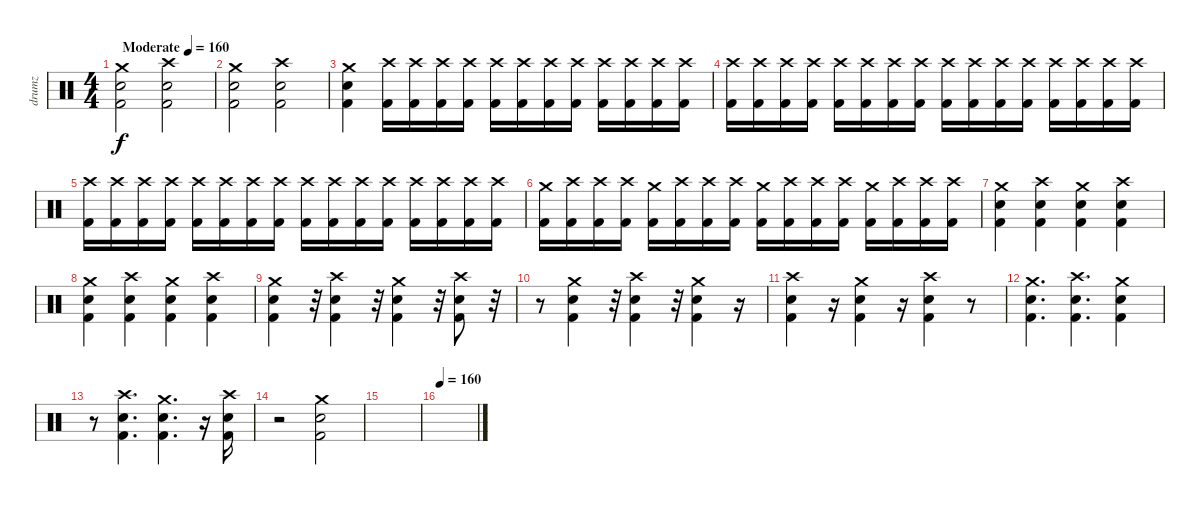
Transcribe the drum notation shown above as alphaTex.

\track ("drumz" "drumz") {instrument percussion}
\staff {score}
\articulation defaults
\ts (4 4)
\tempo (160 "Moderate")
\tempo 130
\tempo (160 "Moderate")
\clef neutral
\ks c
("Crash medium (hit)" "Electric Snare (hit)" "Kick (hit) 2").2{dy f} ("Crash high (hit)" "Electric Snare (hit)" "Kick (hit) 2").2 |
("Crash medium (hit)" "Electric Snare (hit)" "Kick (hit) 2").2 ("Crash high (hit)" "Electric Snare (hit)" "Kick (hit) 2").2 |
("Crash medium (hit)" "Electric Snare (hit)" "Kick (hit) 2").4 ("Crash high (hit)" "Kick (hit) 2").16 ("Crash high (hit)" "Kick (hit) 2").16 ("Crash high (hit)" "Kick (hit) 2").16 ("Crash high (hit)" "Kick (hit) 2").16 ("Crash high (hit)" "Kick (hit) 2").16 ("Crash high (hit)" "Kick (hit) 2").16 ("Crash high (hit)" "Kick (hit) 2").16 ("Crash high (hit)" "Kick (hit) 2").16 ("Crash high (hit)" "Kick (hit) 2").16 ("Crash high (hit)" "Kick (hit) 2").16 ("Crash high (hit)" "Kick (hit) 2").16 ("Crash high (hit)" "Kick (hit) 2").16 |
("Crash high (hit)" "Kick (hit) 2").16 ("Crash high (hit)" "Kick (hit) 2").16 ("Crash high (hit)" "Kick (hit) 2").16 ("Crash high (hit)" "Kick (hit) 2").16 ("Crash high (hit)" "Kick (hit) 2").16 ("Crash high (hit)" "Kick (hit) 2").16 ("Crash high (hit)" "Kick (hit) 2").16 ("Crash high (hit)" "Kick (hit) 2").16 ("Crash high (hit)" "Kick (hit) 2").16 ("Crash high (hit)" "Kick (hit) 2").16 ("Crash high (hit)" "Kick (hit) 2").16 ("Crash high (hit)" "Kick (hit) 2").16 ("Crash high (hit)" "Kick (hit) 2").16 ("Crash high (hit)" "Kick (hit) 2").16 ("Crash high (hit)" "Kick (hit) 2").16 ("Crash high (hit)" "Kick (hit) 2").16 |
("Crash high (hit)" "Kick (hit) 2").16 ("Crash high (hit)" "Kick (hit) 2").16 ("Crash high (hit)" "Kick (hit) 2").16 ("Crash high (hit)" "Kick (hit) 2").16 ("Crash high (hit)" "Kick (hit) 2").16 ("Crash high (hit)" "Kick (hit) 2").16 ("Crash high (hit)" "Kick (hit) 2").16 ("Crash high (hit)" "Kick (hit) 2").16 ("Crash high (hit)" "Kick (hit) 2").16 ("Crash high (hit)" "Kick (hit) 2").16 ("Crash high (hit)" "Kick (hit) 2").16 ("Crash high (hit)" "Kick (hit) 2").16 ("Crash high (hit)" "Kick (hit) 2").16 ("Crash high (hit)" "Kick (hit) 2").16 ("Crash high (hit)" "Kick (hit) 2").16 ("Crash high (hit)" "Kick (hit) 2").16 |
("Crash medium (hit)" "Kick (hit) 2").16 ("Crash high (hit)" "Kick (hit) 2").16 ("Crash high (hit)" "Kick (hit) 2").16 ("Crash high (hit)" "Kick (hit) 2").16 ("Crash medium (hit)" "Kick (hit) 2").16 ("Crash high (hit)" "Kick (hit) 2").16 ("Crash high (hit)" "Kick (hit) 2").16 ("Crash high (hit)" "Kick (hit) 2").16 ("Crash medium (hit)" "Kick (hit) 2").16 ("Crash high (hit)" "Kick (hit) 2").16 ("Crash high (hit)" "Kick (hit) 2").16 ("Crash high (hit)" "Kick (hit) 2").16 ("Crash medium (hit)" "Kick (hit) 2").16 ("Crash high (hit)" "Kick (hit) 2").16 ("Crash high (hit)" "Kick (hit) 2").16 ("Crash high (hit)" "Kick (hit) 2").16 |
("Crash medium (hit)" "Electric Snare (hit)" "Kick (hit) 2").4 ("Crash high (hit)" "Electric Snare (hit)" "Kick (hit) 2").4 ("Crash medium (hit)" "Electric Snare (hit)" "Kick (hit) 2").4 ("Crash high (hit)" "Electric Snare (hit)" "Kick (hit) 2").4 |
("Crash medium (hit)" "Electric Snare (hit)" "Kick (hit) 2").4 ("Crash high (hit)" "Electric Snare (hit)" "Kick (hit) 2").4 ("Crash medium (hit)" "Electric Snare (hit)" "Kick (hit) 2").4 ("Crash high (hit)" "Electric Snare (hit)" "Kick (hit) 2").4 |
("Crash medium (hit)" "Electric Snare (hit)" "Kick (hit) 2").4 r.32 ("Crash high (hit)" "Electric Snare (hit)" "Kick (hit) 2").4 r.32 ("Crash medium (hit)" "Electric Snare (hit)" "Kick (hit) 2").4 r.32 ("Crash high (hit)" "Electric Snare (hit)" "Kick (hit) 2").8 r.32 |
r.8 ("Crash medium (hit)" "Electric Snare (hit)" "Kick (hit) 2").4 r.32 ("Crash high (hit)" "Electric Snare (hit)" "Kick (hit) 2").4 r.32 ("Crash medium (hit)" "Electric Snare (hit)" "Kick (hit) 2").4 r.16 |
("Crash high (hit)" "Electric Snare (hit)" "Kick (hit) 2").4 r.16 ("Crash medium (hit)" "Electric Snare (hit)" "Kick (hit) 2").4 r.16 ("Crash high (hit)" "Electric Snare (hit)" "Kick (hit) 2").4 r.8 |
("Crash medium (hit)" "Electric Snare (hit)" "Kick (hit) 2").4{d} ("Crash high (hit)" "Electric Snare (hit)" "Kick (hit) 2").4{d} ("Crash medium (hit)" "Electric Snare (hit)" "Kick (hit) 2").4 |
r.8 ("Crash high (hit)" "Electric Snare (hit)" "Kick (hit) 2").4{d} ("Crash medium (hit)" "Electric Snare (hit)" "Kick (hit) 2").4{d} r.16 ("Crash high (hit)" "Electric Snare (hit)" "Kick (hit) 2").16 |
r.2 ("Crash medium (hit)" "Electric Snare (hit)" "Kick (hit) 2").2 |
|
\tempo 160
